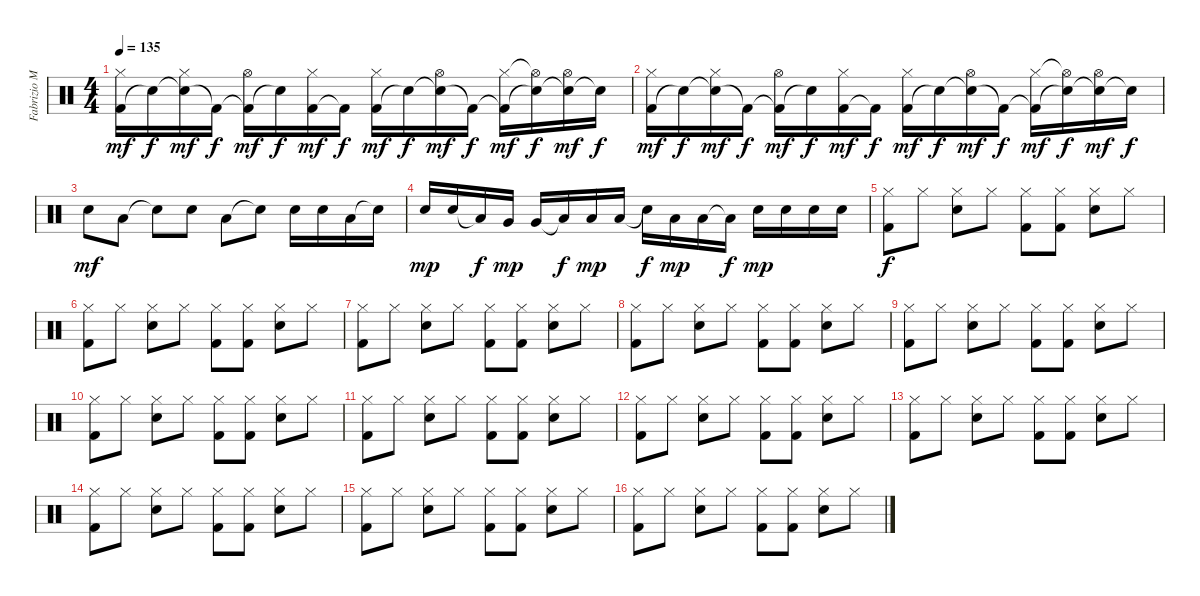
\track ("Fabrizio Moretti" "Fabrizio M") {instrument percussion}
\staff {score}
\articulation defaults
\ts (4 4)
\tempo 135
\clef neutral
\ks c
("Kick (hit) 2" "Hi-Hat (closed)").16{dy mf} "Snare (hit)"{t}.16{dy f} ("Snare (hit)"{t} "Hi-Hat (closed)").16{dy mf} "Kick (hit) 2"{t}.16{dy f} ("Kick (hit) 2"{t} "Hi-Hat (open)").16{dy mf} "Snare (hit)"{t}.16{dy f} ("Kick (hit) 2" "Hi-Hat (closed)").16{dy mf} "Kick (hit) 2"{t}.16{dy f} ("Kick (hit) 2" "Hi-Hat (closed)").16{dy mf} "Snare (hit)"{t}.16{dy f} ("Snare (hit)"{t} "Hi-Hat (open)").16{dy mf} "Kick (hit) 2"{t}.16{dy f} ("Kick (hit) 2"{t} "Hi-Hat (closed)").16{dy mf} ("Snare (hit)"{t} "Hi-Hat (open)"{t}).16{dy f} ("Snare (hit)"{t} "Hi-Hat (open)").16{dy mf} "Snare (hit)"{t}.16{dy f} |
("Kick (hit) 2" "Hi-Hat (closed)").16{dy mf} "Snare (hit)"{t}.16{dy f} ("Snare (hit)"{t} "Hi-Hat (closed)").16{dy mf} "Kick (hit) 2"{t}.16{dy f} ("Kick (hit) 2"{t} "Hi-Hat (open)").16{dy mf} "Snare (hit)"{t}.16{dy f} ("Kick (hit) 2" "Hi-Hat (closed)").16{dy mf} "Kick (hit) 2"{t}.16{dy f} ("Kick (hit) 2" "Hi-Hat (closed)").16{dy mf} "Snare (hit)"{t}.16{dy f} ("Snare (hit)"{t} "Hi-Hat (open)").16{dy mf} "Kick (hit) 2"{t}.16{dy f} ("Kick (hit) 2"{t} "Hi-Hat (closed)").16{dy mf} ("Snare (hit)"{t} "Hi-Hat (open)"{t}).16{dy f} ("Snare (hit)"{t} "Hi-Hat (open)").16{dy mf} "Snare (hit)"{t}.16{dy f} |
"Electric Snare (hit)".8{dy mf} "Low Tom (hit)".8 "Snare (hit)"{t}.8 "Electric Snare (hit)".8 "Low Tom (hit)".8 "Snare (hit)"{t}.8 "Electric Snare (hit)".16 "Electric Snare (hit)".16 "Low Tom (hit)".16 "Snare (hit)"{t}.16 |
"Electric Snare (hit)".16{dy mp} "Electric Snare (hit)".16 "Low Tom (hit)"{t}.16{dy f} "Very Low Tom (hit)".16{dy mp} "Very Low Tom (hit)".16 "Low Tom (hit)"{t}.16{dy f} "Low Tom (hit)".16{dy mp} "Low Tom (hit)".16 "Snare (hit)"{t}.16{dy f} "Low Floor Tom (hit)".16{dy mp} "Low Floor Tom (hit)".16 "Low Floor Tom (hit)"{t}.16{dy f} "Electric Snare (hit)".16{dy mp} "Electric Snare (hit)".16 "Electric Snare (hit)".16 "Electric Snare (hit)".16 |
("Hi-Hat (closed)" "Kick (hit) 2").8{dy f} "Hi-Hat (closed)".8 ("Hi-Hat (closed)" "Electric Snare (hit)").8 "Hi-Hat (closed)".8 ("Hi-Hat (closed)" "Kick (hit) 2").8 ("Hi-Hat (closed)" "Kick (hit) 2").8 ("Hi-Hat (closed)" "Electric Snare (hit)").8 "Hi-Hat (closed)".8 |
("Hi-Hat (closed)" "Kick (hit) 2").8 "Hi-Hat (closed)".8 ("Hi-Hat (closed)" "Electric Snare (hit)").8 "Hi-Hat (closed)".8 ("Hi-Hat (closed)" "Kick (hit) 2").8 ("Hi-Hat (closed)" "Kick (hit) 2").8 ("Hi-Hat (closed)" "Electric Snare (hit)").8 "Hi-Hat (closed)".8 |
("Hi-Hat (closed)" "Kick (hit) 2").8 "Hi-Hat (closed)".8 ("Hi-Hat (closed)" "Electric Snare (hit)").8 "Hi-Hat (closed)".8 ("Hi-Hat (closed)" "Kick (hit) 2").8 ("Hi-Hat (closed)" "Kick (hit) 2").8 ("Hi-Hat (closed)" "Electric Snare (hit)").8 "Hi-Hat (closed)".8 |
("Hi-Hat (closed)" "Kick (hit) 2").8 "Hi-Hat (closed)".8 ("Hi-Hat (closed)" "Electric Snare (hit)").8 "Hi-Hat (closed)".8 ("Hi-Hat (closed)" "Kick (hit) 2").8 ("Hi-Hat (closed)" "Kick (hit) 2").8 ("Hi-Hat (closed)" "Electric Snare (hit)").8 "Hi-Hat (closed)".8 |
("Hi-Hat (closed)" "Kick (hit) 2").8 "Hi-Hat (closed)".8 ("Hi-Hat (closed)" "Electric Snare (hit)").8 "Hi-Hat (closed)".8 ("Hi-Hat (closed)" "Kick (hit) 2").8 ("Hi-Hat (closed)" "Kick (hit) 2").8 ("Hi-Hat (closed)" "Electric Snare (hit)").8 "Hi-Hat (closed)".8 |
("Hi-Hat (closed)" "Kick (hit) 2").8 "Hi-Hat (closed)".8 ("Hi-Hat (closed)" "Electric Snare (hit)").8 "Hi-Hat (closed)".8 ("Hi-Hat (closed)" "Kick (hit) 2").8 ("Hi-Hat (closed)" "Kick (hit) 2").8 ("Hi-Hat (closed)" "Electric Snare (hit)").8 "Hi-Hat (closed)".8 |
("Hi-Hat (closed)" "Kick (hit) 2").8 "Hi-Hat (closed)".8 ("Hi-Hat (closed)" "Electric Snare (hit)").8 "Hi-Hat (closed)".8 ("Hi-Hat (closed)" "Kick (hit) 2").8 ("Hi-Hat (closed)" "Kick (hit) 2").8 ("Hi-Hat (closed)" "Electric Snare (hit)").8 "Hi-Hat (closed)".8 |
("Hi-Hat (closed)" "Kick (hit) 2").8 "Hi-Hat (closed)".8 ("Hi-Hat (closed)" "Electric Snare (hit)").8 "Hi-Hat (closed)".8 ("Hi-Hat (closed)" "Kick (hit) 2").8 ("Hi-Hat (closed)" "Kick (hit) 2").8 ("Hi-Hat (closed)" "Electric Snare (hit)").8 "Hi-Hat (closed)".8 |
("Hi-Hat (closed)" "Kick (hit) 2").8 "Hi-Hat (closed)".8 ("Hi-Hat (closed)" "Electric Snare (hit)").8 "Hi-Hat (closed)".8 ("Hi-Hat (closed)" "Kick (hit) 2").8 ("Hi-Hat (closed)" "Kick (hit) 2").8 ("Hi-Hat (closed)" "Electric Snare (hit)").8 "Hi-Hat (closed)".8 |
("Hi-Hat (closed)" "Kick (hit) 2").8 "Hi-Hat (closed)".8 ("Hi-Hat (closed)" "Electric Snare (hit)").8 "Hi-Hat (closed)".8 ("Hi-Hat (closed)" "Kick (hit) 2").8 ("Hi-Hat (closed)" "Kick (hit) 2").8 ("Hi-Hat (closed)" "Electric Snare (hit)").8 "Hi-Hat (closed)".8 |
("Hi-Hat (closed)" "Kick (hit) 2").8 "Hi-Hat (closed)".8 ("Hi-Hat (closed)" "Electric Snare (hit)").8 "Hi-Hat (closed)".8 ("Hi-Hat (closed)" "Kick (hit) 2").8 ("Hi-Hat (closed)" "Kick (hit) 2").8 ("Hi-Hat (closed)" "Electric Snare (hit)").8 "Hi-Hat (closed)".8 |
("Hi-Hat (closed)" "Kick (hit) 2").8 "Hi-Hat (closed)".8 ("Hi-Hat (closed)" "Electric Snare (hit)").8 "Hi-Hat (closed)".8 ("Hi-Hat (closed)" "Kick (hit) 2").8 ("Hi-Hat (closed)" "Kick (hit) 2").8 ("Hi-Hat (closed)" "Electric Snare (hit)").8 "Hi-Hat (closed)".8
